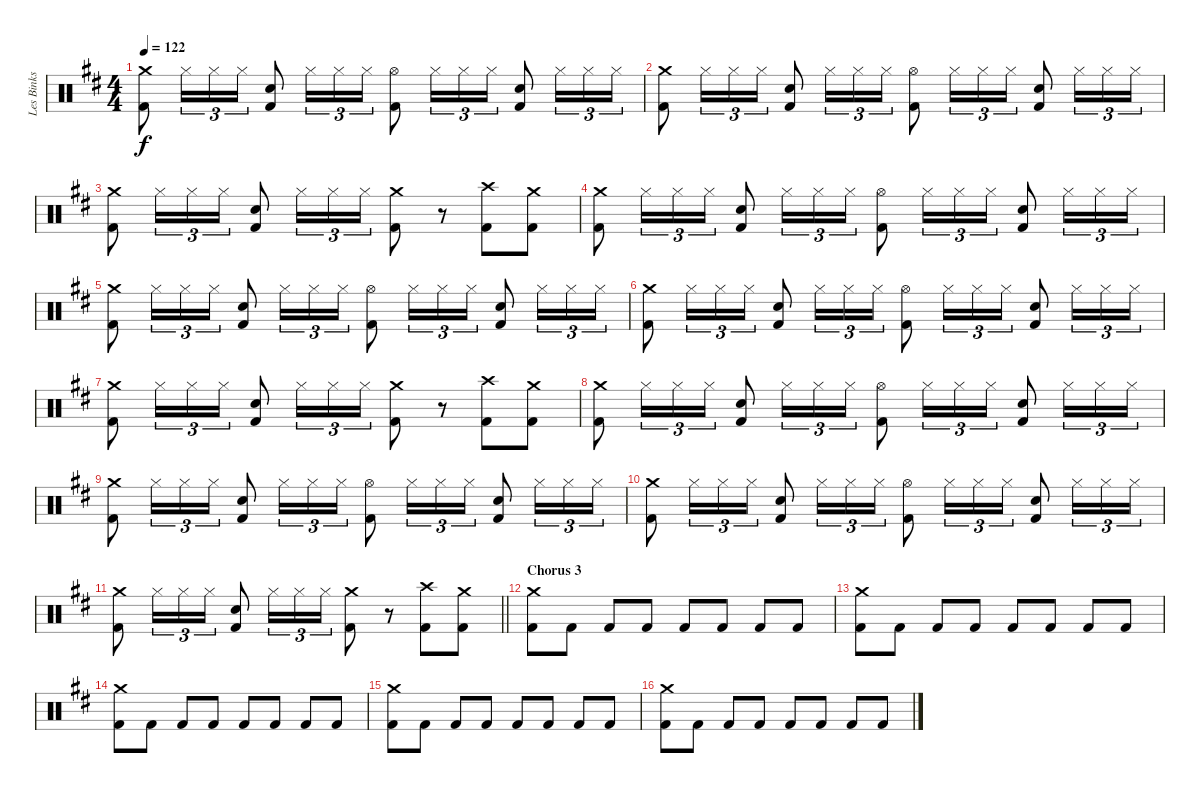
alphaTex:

\track ("Les Binks" "Les Binks") {instrument percussion}
\staff {score}
\articulation defaults
\ts (4 4)
\tempo 122
\clef neutral
\ks d
("Crash medium (hit)" "Kick (hit) 2").8{dy f} "Hi-Hat (closed)".16{tu (3 2)} "Hi-Hat (closed)".16{tu (3 2)} "Hi-Hat (closed)".16{tu (3 2)} ("Snare (hit) 2" "Kick (hit) 2").8 "Hi-Hat (closed)".16{tu (3 2)} "Hi-Hat (closed)".16{tu (3 2)} "Hi-Hat (closed)".16{tu (3 2)} ("Hi-Hat (open)" "Kick (hit) 2").8 "Hi-Hat (closed)".16{tu (3 2)} "Hi-Hat (closed)".16{tu (3 2)} "Hi-Hat (closed)".16{tu (3 2)} ("Snare (hit) 2" "Kick (hit) 2").8 "Hi-Hat (closed)".16{tu (3 2)} "Hi-Hat (closed)".16{tu (3 2)} "Hi-Hat (closed)".16{tu (3 2)} |
("Crash medium (hit)" "Kick (hit) 2").8 "Hi-Hat (closed)".16{tu (3 2)} "Hi-Hat (closed)".16{tu (3 2)} "Hi-Hat (closed)".16{tu (3 2)} ("Snare (hit) 2" "Kick (hit) 2").8 "Hi-Hat (closed)".16{tu (3 2)} "Hi-Hat (closed)".16{tu (3 2)} "Hi-Hat (closed)".16{tu (3 2)} ("Hi-Hat (open)" "Kick (hit) 2").8 "Hi-Hat (closed)".16{tu (3 2)} "Hi-Hat (closed)".16{tu (3 2)} "Hi-Hat (closed)".16{tu (3 2)} ("Snare (hit) 2" "Kick (hit) 2").8 "Hi-Hat (closed)".16{tu (3 2)} "Hi-Hat (closed)".16{tu (3 2)} "Hi-Hat (closed)".16{tu (3 2)} |
("Crash medium (hit)" "Kick (hit) 2").8 "Hi-Hat (closed)".16{tu (3 2)} "Hi-Hat (closed)".16{tu (3 2)} "Hi-Hat (closed)".16{tu (3 2)} ("Snare (hit) 2" "Kick (hit) 2").8 "Hi-Hat (closed)".16{tu (3 2)} "Hi-Hat (closed)".16{tu (3 2)} "Hi-Hat (closed)".16{tu (3 2)} ("Crash medium (hit)" "Kick (hit) 2").8 r.8 ("Crash high (hit)" "Kick (hit) 2").8 ("Crash medium (hit)" "Kick (hit) 2").8 |
("Crash medium (hit)" "Kick (hit) 2").8 "Hi-Hat (closed)".16{tu (3 2)} "Hi-Hat (closed)".16{tu (3 2)} "Hi-Hat (closed)".16{tu (3 2)} ("Snare (hit) 2" "Kick (hit) 2").8 "Hi-Hat (closed)".16{tu (3 2)} "Hi-Hat (closed)".16{tu (3 2)} "Hi-Hat (closed)".16{tu (3 2)} ("Hi-Hat (open)" "Kick (hit) 2").8 "Hi-Hat (closed)".16{tu (3 2)} "Hi-Hat (closed)".16{tu (3 2)} "Hi-Hat (closed)".16{tu (3 2)} ("Snare (hit) 2" "Kick (hit) 2").8 "Hi-Hat (closed)".16{tu (3 2)} "Hi-Hat (closed)".16{tu (3 2)} "Hi-Hat (closed)".16{tu (3 2)} |
("Crash medium (hit)" "Kick (hit) 2").8 "Hi-Hat (closed)".16{tu (3 2)} "Hi-Hat (closed)".16{tu (3 2)} "Hi-Hat (closed)".16{tu (3 2)} ("Snare (hit) 2" "Kick (hit) 2").8 "Hi-Hat (closed)".16{tu (3 2)} "Hi-Hat (closed)".16{tu (3 2)} "Hi-Hat (closed)".16{tu (3 2)} ("Hi-Hat (open)" "Kick (hit) 2").8 "Hi-Hat (closed)".16{tu (3 2)} "Hi-Hat (closed)".16{tu (3 2)} "Hi-Hat (closed)".16{tu (3 2)} ("Snare (hit) 2" "Kick (hit) 2").8 "Hi-Hat (closed)".16{tu (3 2)} "Hi-Hat (closed)".16{tu (3 2)} "Hi-Hat (closed)".16{tu (3 2)} |
("Crash medium (hit)" "Kick (hit) 2").8 "Hi-Hat (closed)".16{tu (3 2)} "Hi-Hat (closed)".16{tu (3 2)} "Hi-Hat (closed)".16{tu (3 2)} ("Snare (hit) 2" "Kick (hit) 2").8 "Hi-Hat (closed)".16{tu (3 2)} "Hi-Hat (closed)".16{tu (3 2)} "Hi-Hat (closed)".16{tu (3 2)} ("Hi-Hat (open)" "Kick (hit) 2").8 "Hi-Hat (closed)".16{tu (3 2)} "Hi-Hat (closed)".16{tu (3 2)} "Hi-Hat (closed)".16{tu (3 2)} ("Snare (hit) 2" "Kick (hit) 2").8 "Hi-Hat (closed)".16{tu (3 2)} "Hi-Hat (closed)".16{tu (3 2)} "Hi-Hat (closed)".16{tu (3 2)} |
("Crash medium (hit)" "Kick (hit) 2").8 "Hi-Hat (closed)".16{tu (3 2)} "Hi-Hat (closed)".16{tu (3 2)} "Hi-Hat (closed)".16{tu (3 2)} ("Snare (hit) 2" "Kick (hit) 2").8 "Hi-Hat (closed)".16{tu (3 2)} "Hi-Hat (closed)".16{tu (3 2)} "Hi-Hat (closed)".16{tu (3 2)} ("Crash medium (hit)" "Kick (hit) 2").8 r.8 ("Crash high (hit)" "Kick (hit) 2").8 ("Crash medium (hit)" "Kick (hit) 2").8 |
("Crash medium (hit)" "Kick (hit) 2").8 "Hi-Hat (closed)".16{tu (3 2)} "Hi-Hat (closed)".16{tu (3 2)} "Hi-Hat (closed)".16{tu (3 2)} ("Snare (hit) 2" "Kick (hit) 2").8 "Hi-Hat (closed)".16{tu (3 2)} "Hi-Hat (closed)".16{tu (3 2)} "Hi-Hat (closed)".16{tu (3 2)} ("Hi-Hat (open)" "Kick (hit) 2").8 "Hi-Hat (closed)".16{tu (3 2)} "Hi-Hat (closed)".16{tu (3 2)} "Hi-Hat (closed)".16{tu (3 2)} ("Snare (hit) 2" "Kick (hit) 2").8 "Hi-Hat (closed)".16{tu (3 2)} "Hi-Hat (closed)".16{tu (3 2)} "Hi-Hat (closed)".16{tu (3 2)} |
("Crash medium (hit)" "Kick (hit) 2").8 "Hi-Hat (closed)".16{tu (3 2)} "Hi-Hat (closed)".16{tu (3 2)} "Hi-Hat (closed)".16{tu (3 2)} ("Snare (hit) 2" "Kick (hit) 2").8 "Hi-Hat (closed)".16{tu (3 2)} "Hi-Hat (closed)".16{tu (3 2)} "Hi-Hat (closed)".16{tu (3 2)} ("Hi-Hat (open)" "Kick (hit) 2").8 "Hi-Hat (closed)".16{tu (3 2)} "Hi-Hat (closed)".16{tu (3 2)} "Hi-Hat (closed)".16{tu (3 2)} ("Snare (hit) 2" "Kick (hit) 2").8 "Hi-Hat (closed)".16{tu (3 2)} "Hi-Hat (closed)".16{tu (3 2)} "Hi-Hat (closed)".16{tu (3 2)} |
("Crash medium (hit)" "Kick (hit) 2").8 "Hi-Hat (closed)".16{tu (3 2)} "Hi-Hat (closed)".16{tu (3 2)} "Hi-Hat (closed)".16{tu (3 2)} ("Snare (hit) 2" "Kick (hit) 2").8 "Hi-Hat (closed)".16{tu (3 2)} "Hi-Hat (closed)".16{tu (3 2)} "Hi-Hat (closed)".16{tu (3 2)} ("Hi-Hat (open)" "Kick (hit) 2").8 "Hi-Hat (closed)".16{tu (3 2)} "Hi-Hat (closed)".16{tu (3 2)} "Hi-Hat (closed)".16{tu (3 2)} ("Snare (hit) 2" "Kick (hit) 2").8 "Hi-Hat (closed)".16{tu (3 2)} "Hi-Hat (closed)".16{tu (3 2)} "Hi-Hat (closed)".16{tu (3 2)} |
\barLineRight lightlight
("Crash medium (hit)" "Kick (hit) 2").8 "Hi-Hat (closed)".16{tu (3 2)} "Hi-Hat (closed)".16{tu (3 2)} "Hi-Hat (closed)".16{tu (3 2)} ("Snare (hit) 2" "Kick (hit) 2").8 "Hi-Hat (closed)".16{tu (3 2)} "Hi-Hat (closed)".16{tu (3 2)} "Hi-Hat (closed)".16{tu (3 2)} ("Crash medium (hit)" "Kick (hit) 2").8 r.8 ("Crash high (hit)" "Kick (hit) 2").8 ("Crash medium (hit)" "Kick (hit) 2").8 |
\section ("" "Chorus 3")
("Crash medium (hit)" "Kick (hit) 2").8 "Kick (hit) 2".8 "Kick (hit) 2".8 "Kick (hit) 2".8 "Kick (hit) 2".8 "Kick (hit) 2".8 "Kick (hit) 2".8 "Kick (hit) 2".8 |
("Crash medium (hit)" "Kick (hit) 2").8 "Kick (hit) 2".8 "Kick (hit) 2".8 "Kick (hit) 2".8 "Kick (hit) 2".8 "Kick (hit) 2".8 "Kick (hit) 2".8 "Kick (hit) 2".8 |
("Crash medium (hit)" "Kick (hit) 2").8 "Kick (hit) 2".8 "Kick (hit) 2".8 "Kick (hit) 2".8 "Kick (hit) 2".8 "Kick (hit) 2".8 "Kick (hit) 2".8 "Kick (hit) 2".8 |
("Crash medium (hit)" "Kick (hit) 2").8 "Kick (hit) 2".8 "Kick (hit) 2".8 "Kick (hit) 2".8 "Kick (hit) 2".8 "Kick (hit) 2".8 "Kick (hit) 2".8 "Kick (hit) 2".8 |
("Crash medium (hit)" "Kick (hit) 2").8 "Kick (hit) 2".8 "Kick (hit) 2".8 "Kick (hit) 2".8 "Kick (hit) 2".8 "Kick (hit) 2".8 "Kick (hit) 2".8 "Kick (hit) 2".8
